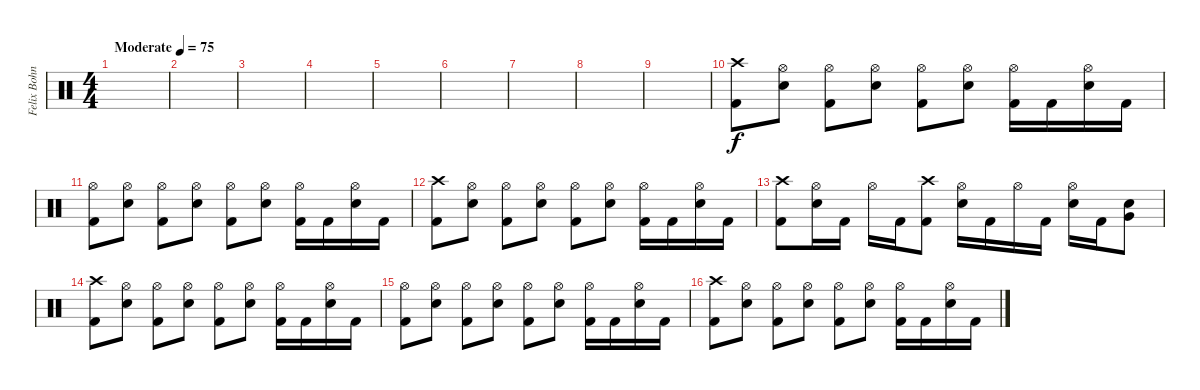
\track ("Felix Bohnke" "Felix Bohn") {instrument percussion}
\staff {score}
\articulation defaults
\ts (4 4)
\tempo (75 "Moderate")
\clef neutral
\ks c
|
|
|
|
|
|
|
|
|
("Crash high (hit)" "Kick (hit) 2").8 ("Hi-Hat (open)" "Snare (hit) 2").8 ("Hi-Hat (open)" "Kick (hit) 2").8 ("Hi-Hat (open)" "Snare (hit) 2").8 ("Hi-Hat (open)" "Kick (hit) 2").8 ("Hi-Hat (open)" "Snare (hit) 2").8 ("Hi-Hat (open)" "Kick (hit) 2").16 "Kick (hit) 2".16 ("Hi-Hat (open)" "Snare (hit) 2").16 "Kick (hit) 2".16 |
("Hi-Hat (open)" "Kick (hit) 2").8 ("Hi-Hat (open)" "Snare (hit) 2").8 ("Hi-Hat (open)" "Kick (hit) 2").8 ("Hi-Hat (open)" "Snare (hit) 2").8 ("Hi-Hat (open)" "Kick (hit) 2").8 ("Hi-Hat (open)" "Snare (hit) 2").8 ("Hi-Hat (open)" "Kick (hit) 2").16 "Kick (hit) 2".16 ("Hi-Hat (open)" "Snare (hit) 2").16 "Kick (hit) 2".16 |
("Crash high (hit)" "Kick (hit) 2").8 ("Hi-Hat (open)" "Snare (hit) 2").8 ("Hi-Hat (open)" "Kick (hit) 2").8 ("Hi-Hat (open)" "Snare (hit) 2").8 ("Hi-Hat (open)" "Kick (hit) 2").8 ("Hi-Hat (open)" "Snare (hit) 2").8 ("Hi-Hat (open)" "Kick (hit) 2").16 "Kick (hit) 2".16 ("Hi-Hat (open)" "Snare (hit) 2").16 "Kick (hit) 2".16 |
("Crash high (hit)" "Kick (hit) 2").8 ("Hi-Hat (open)" "Snare (hit) 2").16 "Kick (hit) 2".16 "Hi-Hat (open)".16 "Kick (hit) 2".16 ("Crash high (hit)" "Kick (hit) 2").8 ("Hi-Hat (open)" "Snare (hit) 2").16 "Kick (hit) 2".16 "Hi-Hat (open)".16 "Kick (hit) 2".16 ("Hi-Hat (open)" "Snare (hit) 2").16 "Kick (hit) 2".16 ("Snare (hit) 2" "Very Low Tom (hit)").8 |
("Crash high (hit)" "Kick (hit) 2").8 ("Hi-Hat (open)" "Snare (hit) 2").8 ("Hi-Hat (open)" "Kick (hit) 2").8 ("Hi-Hat (open)" "Snare (hit) 2").8 ("Hi-Hat (open)" "Kick (hit) 2").8 ("Hi-Hat (open)" "Snare (hit) 2").8 ("Hi-Hat (open)" "Kick (hit) 2").16 "Kick (hit) 2".16 ("Hi-Hat (open)" "Snare (hit) 2").16 "Kick (hit) 2".16 |
("Hi-Hat (open)" "Kick (hit) 2").8 ("Hi-Hat (open)" "Snare (hit) 2").8 ("Hi-Hat (open)" "Kick (hit) 2").8 ("Hi-Hat (open)" "Snare (hit) 2").8 ("Hi-Hat (open)" "Kick (hit) 2").8 ("Hi-Hat (open)" "Snare (hit) 2").8 ("Hi-Hat (open)" "Kick (hit) 2").16 "Kick (hit) 2".16 ("Hi-Hat (open)" "Snare (hit) 2").16 "Kick (hit) 2".16 |
("Crash high (hit)" "Kick (hit) 2").8 ("Hi-Hat (open)" "Snare (hit) 2").8 ("Hi-Hat (open)" "Kick (hit) 2").8 ("Hi-Hat (open)" "Snare (hit) 2").8 ("Hi-Hat (open)" "Kick (hit) 2").8 ("Hi-Hat (open)" "Snare (hit) 2").8 ("Hi-Hat (open)" "Kick (hit) 2").16 "Kick (hit) 2".16 ("Hi-Hat (open)" "Snare (hit) 2").16 "Kick (hit) 2".16
